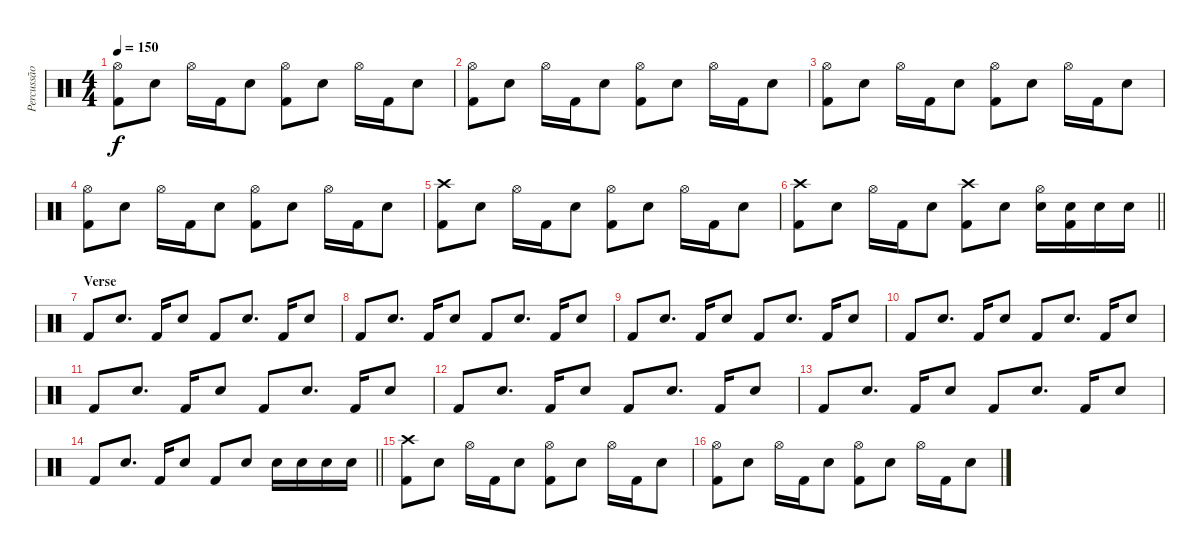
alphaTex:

\track ("Percussão" "Percussão") {instrument percussion}
\staff {score}
\articulation defaults
\ts (4 4)
\tempo 150
\clef neutral
\ks c
("Hi-Hat (open)" "Kick (hit) 2").8{dy f} "Snare (hit) 2".8 "Hi-Hat (open)".16 "Kick (hit) 2".16 "Snare (hit) 2".8 ("Hi-Hat (open)" "Kick (hit) 2").8 "Snare (hit) 2".8 "Hi-Hat (open)".16 "Kick (hit) 2".16 "Snare (hit) 2".8 |
("Hi-Hat (open)" "Kick (hit) 2").8 "Snare (hit) 2".8 "Hi-Hat (open)".16 "Kick (hit) 2".16 "Snare (hit) 2".8 ("Hi-Hat (open)" "Kick (hit) 2").8 "Snare (hit) 2".8 "Hi-Hat (open)".16 "Kick (hit) 2".16 "Snare (hit) 2".8 |
("Hi-Hat (open)" "Kick (hit) 2").8 "Snare (hit) 2".8 "Hi-Hat (open)".16 "Kick (hit) 2".16 "Snare (hit) 2".8 ("Hi-Hat (open)" "Kick (hit) 2").8 "Snare (hit) 2".8 "Hi-Hat (open)".16 "Kick (hit) 2".16 "Snare (hit) 2".8 |
("Hi-Hat (open)" "Kick (hit) 2").8 "Snare (hit) 2".8 "Hi-Hat (open)".16 "Kick (hit) 2".16 "Snare (hit) 2".8 ("Hi-Hat (open)" "Kick (hit) 2").8 "Snare (hit) 2".8 "Hi-Hat (open)".16 "Kick (hit) 2".16 "Snare (hit) 2".8 |
("Crash high (hit)" "Kick (hit) 2").8 "Snare (hit) 2".8 "Hi-Hat (open)".16 "Kick (hit) 2".16 "Snare (hit) 2".8 ("Hi-Hat (open)" "Kick (hit) 2").8 "Snare (hit) 2".8 "Hi-Hat (open)".16 "Kick (hit) 2".16 "Snare (hit) 2".8 |
\barLineRight lightlight
("Crash high (hit)" "Kick (hit) 2").8 "Snare (hit) 2".8 "Hi-Hat (open)".16 "Kick (hit) 2".16 "Snare (hit) 2".8 ("Crash high (hit)" "Kick (hit) 2").8 "Snare (hit) 2".8 ("Hi-Hat (open)" "Snare (hit) 2").16 ("Snare (hit) 2" "Kick (hit) 2").16 "Snare (hit) 2".16 "Snare (hit) 2".16 |
\section ("" "Verse")
"Kick (hit) 2".8 "Snare (hit) 2".8{d} "Kick (hit) 2".16 "Snare (hit) 2".8 "Kick (hit) 2".8 "Snare (hit) 2".8{d} "Kick (hit) 2".16 "Snare (hit) 2".8 |
"Kick (hit) 2".8 "Snare (hit) 2".8{d} "Kick (hit) 2".16 "Snare (hit) 2".8 "Kick (hit) 2".8 "Snare (hit) 2".8{d} "Kick (hit) 2".16 "Snare (hit) 2".8 |
"Kick (hit) 2".8 "Snare (hit) 2".8{d} "Kick (hit) 2".16 "Snare (hit) 2".8 "Kick (hit) 2".8 "Snare (hit) 2".8{d} "Kick (hit) 2".16 "Snare (hit) 2".8 |
"Kick (hit) 2".8 "Snare (hit) 2".8{d} "Kick (hit) 2".16 "Snare (hit) 2".8 "Kick (hit) 2".8 "Snare (hit) 2".8{d} "Kick (hit) 2".16 "Snare (hit) 2".8 |
"Kick (hit) 2".8 "Snare (hit) 2".8{d} "Kick (hit) 2".16 "Snare (hit) 2".8 "Kick (hit) 2".8 "Snare (hit) 2".8{d} "Kick (hit) 2".16 "Snare (hit) 2".8 |
"Kick (hit) 2".8 "Snare (hit) 2".8{d} "Kick (hit) 2".16 "Snare (hit) 2".8 "Kick (hit) 2".8 "Snare (hit) 2".8{d} "Kick (hit) 2".16 "Snare (hit) 2".8 |
"Kick (hit) 2".8 "Snare (hit) 2".8{d} "Kick (hit) 2".16 "Snare (hit) 2".8 "Kick (hit) 2".8 "Snare (hit) 2".8{d} "Kick (hit) 2".16 "Snare (hit) 2".8 |
\barLineRight lightlight "Kick (hit) 2".8 "Snare (hit) 2".8{d} "Kick (hit) 2".16 "Snare (hit) 2".8 "Kick (hit) 2".8 "Snare (hit) 2".8 "Snare (hit) 2".16 "Snare (hit) 2".16 "Snare (hit) 2".16 "Snare (hit) 2".16
|
("Crash high (hit)" "Kick (hit) 2").8 "Snare (hit) 2".8 "Hi-Hat (open)".16 "Kick (hit) 2".16 "Snare (hit) 2".8 ("Hi-Hat (open)" "Kick (hit) 2").8 "Snare (hit) 2".8 "Hi-Hat (open)".16 "Kick (hit) 2".16 "Snare (hit) 2".8 |
("Hi-Hat (open)" "Kick (hit) 2").8 "Snare (hit) 2".8 "Hi-Hat (open)".16 "Kick (hit) 2".16 "Snare (hit) 2".8 ("Hi-Hat (open)" "Kick (hit) 2").8 "Snare (hit) 2".8 "Hi-Hat (open)".16 "Kick (hit) 2".16 "Snare (hit) 2".8
